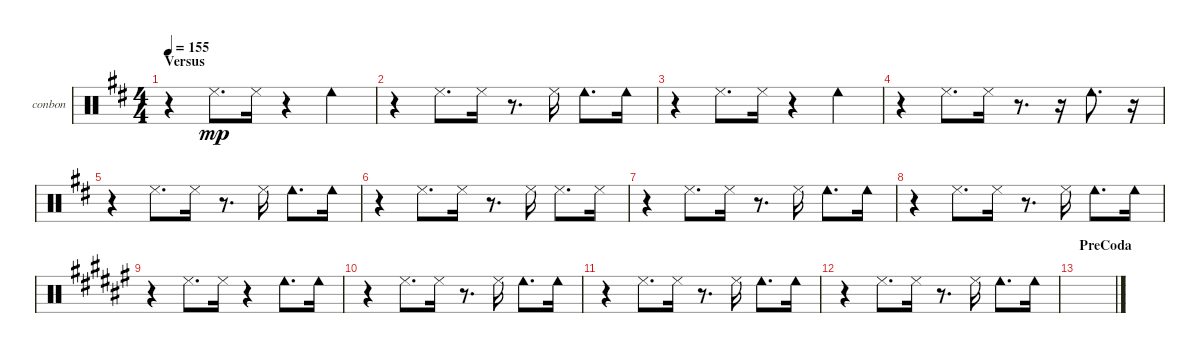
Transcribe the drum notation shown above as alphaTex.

\bracketExtendMode groupsimilarinstruments
\firstSystemTrackNameOrientation horizontal
\otherSystemsTrackNameOrientation horizontal
\track ("Bongos N Congas" "conbon") {instrument percussion}
\staff {score}
\articulation defaults
\ts (4 4)
\section ("" "Versus")
\tempo 155
\clef neutral
\ks d
r.4{dy mp} "Cowbell low (tip)".8{d} "Cowbell low (tip)".16 r.4 "Cowbell low (hit)".4 |
r.4 "Cowbell low (tip)".8{d} "Cowbell low (tip)".16 r.8{d} "Cowbell low (tip)".16 "Cowbell low (hit)".8{d} "Cowbell low (hit)".16 |
r.4 "Cowbell low (tip)".8{d} "Cowbell low (tip)".16 r.4 "Cowbell low (hit)".4 |
r.4 "Cowbell low (tip)".8{d} "Cowbell low (tip)".16 r.8{d} r.16 "Cowbell low (hit)".8{d} r.16 |
r.4 "Cowbell low (tip)".8{d} "Cowbell low (tip)".16 r.8{d} "Cowbell low (tip)".16 "Cowbell low (hit)".8{d} "Cowbell low (hit)".16 |
r.4 "Cowbell low (tip)".8{d} "Cowbell low (tip)".16 r.8{d} "Cowbell low (tip)".16 "Cowbell low (tip)".8{d} "Cowbell low (tip)".16 |
r.4 "Cowbell low (tip)".8{d} "Cowbell low (tip)".16 r.8{d} "Cowbell low (tip)".16 "Cowbell low (hit)".8{d} "Cowbell low (hit)".16 |
r.4 "Cowbell low (tip)".8{d} "Cowbell low (tip)".16 r.8{d} "Cowbell low (tip)".16 "Cowbell low (hit)".8{d} "Cowbell low (hit)".16 |
\scale
0.333333
\ks f#
r.4 "Cowbell low (tip)".8{d} "Cowbell low (tip)".16 r.4 "Cowbell low (hit)".8{d} "Cowbell low (hit)".16 |
\scale
0.333333 r.4 "Cowbell low (tip)".8{d} "Cowbell low (tip)".16 r.8{d} "Cowbell low (tip)".16 "Cowbell low (hit)".8{d} "Cowbell low (hit)".16 |
\scale
0.333333 r.4 "Cowbell low (tip)".8{d} "Cowbell low (tip)".16 r.8{d} "Cowbell low (tip)".16 "Cowbell low (hit)".8{d} "Cowbell low (hit)".16 |
\scale
0.333333 r.4 "Cowbell low (tip)".8{d} "Cowbell low (tip)".16 r.8{d} "Cowbell low (tip)".16 "Cowbell low (hit)".8{d} "Cowbell low (hit)".16 |
\section ("" "PreCoda")
\scale
0.333333 |
\scale
0.333333 |
\scale
0.333333 |
\scale
0.333333
